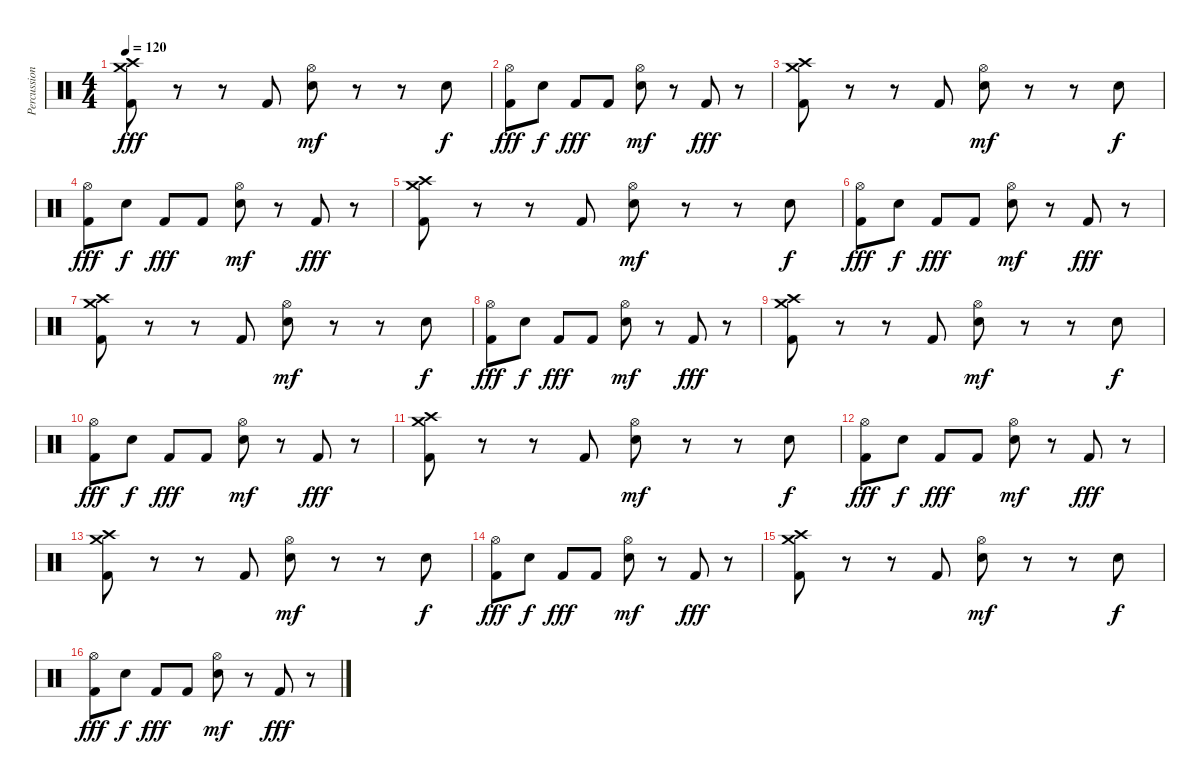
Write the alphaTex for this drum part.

\track ("Percussion" "Percussion") {instrument percussion}
\staff {score}
\articulation defaults
\ts (4 4)
\tempo 120
\clef neutral
\ks c
("Crash medium (hit)" "Crash high (hit)" "Kick (hit) 2").8{dy fff} r.8 r.8 "Kick (hit) 2".8 ("Hi-Hat (open)" "Snare (hit) 2").8{dy mf} r.8 r.8 "Snare (hit) 2".8{dy f} |
("Hi-Hat (open)" "Kick (hit) 2").8{dy fff} "Snare (hit) 2".8{dy f} "Kick (hit) 2".8{dy fff} "Kick (hit) 2".8 ("Hi-Hat (open)" "Snare (hit) 2").8{dy mf} r.8 "Kick (hit) 2".8{dy fff} r.8 |
("Crash medium (hit)" "Crash high (hit)" "Kick (hit) 2").8 r.8 r.8 "Kick (hit) 2".8 ("Hi-Hat (open)" "Snare (hit) 2").8{dy mf} r.8 r.8 "Snare (hit) 2".8{dy f} |
("Hi-Hat (open)" "Kick (hit) 2").8{dy fff} "Snare (hit) 2".8{dy f} "Kick (hit) 2".8{dy fff} "Kick (hit) 2".8 ("Hi-Hat (open)" "Snare (hit) 2").8{dy mf} r.8 "Kick (hit) 2".8{dy fff} r.8 |
("Crash medium (hit)" "Crash high (hit)" "Kick (hit) 2").8 r.8 r.8 "Kick (hit) 2".8 ("Hi-Hat (open)" "Snare (hit) 2").8{dy mf} r.8 r.8 "Snare (hit) 2".8{dy f} |
("Hi-Hat (open)" "Kick (hit) 2").8{dy fff} "Snare (hit) 2".8{dy f} "Kick (hit) 2".8{dy fff} "Kick (hit) 2".8 ("Hi-Hat (open)" "Snare (hit) 2").8{dy mf} r.8 "Kick (hit) 2".8{dy fff} r.8 |
("Crash medium (hit)" "Crash high (hit)" "Kick (hit) 2").8 r.8 r.8 "Kick (hit) 2".8 ("Hi-Hat (open)" "Snare (hit) 2").8{dy mf} r.8 r.8 "Snare (hit) 2".8{dy f} |
("Hi-Hat (open)" "Kick (hit) 2").8{dy fff} "Snare (hit) 2".8{dy f} "Kick (hit) 2".8{dy fff} "Kick (hit) 2".8 ("Hi-Hat (open)" "Snare (hit) 2").8{dy mf} r.8 "Kick (hit) 2".8{dy fff} r.8 |
("Crash medium (hit)" "Crash high (hit)" "Kick (hit) 2").8 r.8 r.8 "Kick (hit) 2".8 ("Hi-Hat (open)" "Snare (hit) 2").8{dy mf} r.8 r.8 "Snare (hit) 2".8{dy f} |
("Hi-Hat (open)" "Kick (hit) 2").8{dy fff} "Snare (hit) 2".8{dy f} "Kick (hit) 2".8{dy fff} "Kick (hit) 2".8 ("Hi-Hat (open)" "Snare (hit) 2").8{dy mf} r.8 "Kick (hit) 2".8{dy fff} r.8 |
("Crash medium (hit)" "Crash high (hit)" "Kick (hit) 2").8 r.8 r.8 "Kick (hit) 2".8 ("Hi-Hat (open)" "Snare (hit) 2").8{dy mf} r.8 r.8 "Snare (hit) 2".8{dy f} |
("Hi-Hat (open)" "Kick (hit) 2").8{dy fff} "Snare (hit) 2".8{dy f} "Kick (hit) 2".8{dy fff} "Kick (hit) 2".8 ("Hi-Hat (open)" "Snare (hit) 2").8{dy mf} r.8 "Kick (hit) 2".8{dy fff} r.8 |
("Crash medium (hit)" "Crash high (hit)" "Kick (hit) 2").8 r.8 r.8 "Kick (hit) 2".8 ("Hi-Hat (open)" "Snare (hit) 2").8{dy mf} r.8 r.8 "Snare (hit) 2".8{dy f} |
("Hi-Hat (open)" "Kick (hit) 2").8{dy fff} "Snare (hit) 2".8{dy f} "Kick (hit) 2".8{dy fff} "Kick (hit) 2".8 ("Hi-Hat (open)" "Snare (hit) 2").8{dy mf} r.8 "Kick (hit) 2".8{dy fff} r.8 |
("Crash medium (hit)" "Crash high (hit)" "Kick (hit) 2").8 r.8 r.8 "Kick (hit) 2".8 ("Hi-Hat (open)" "Snare (hit) 2").8{dy mf} r.8 r.8 "Snare (hit) 2".8{dy f} |
("Hi-Hat (open)" "Kick (hit) 2").8{dy fff} "Snare (hit) 2".8{dy f} "Kick (hit) 2".8{dy fff} "Kick (hit) 2".8 ("Hi-Hat (open)" "Snare (hit) 2").8{dy mf} r.8 "Kick (hit) 2".8{dy fff} r.8
